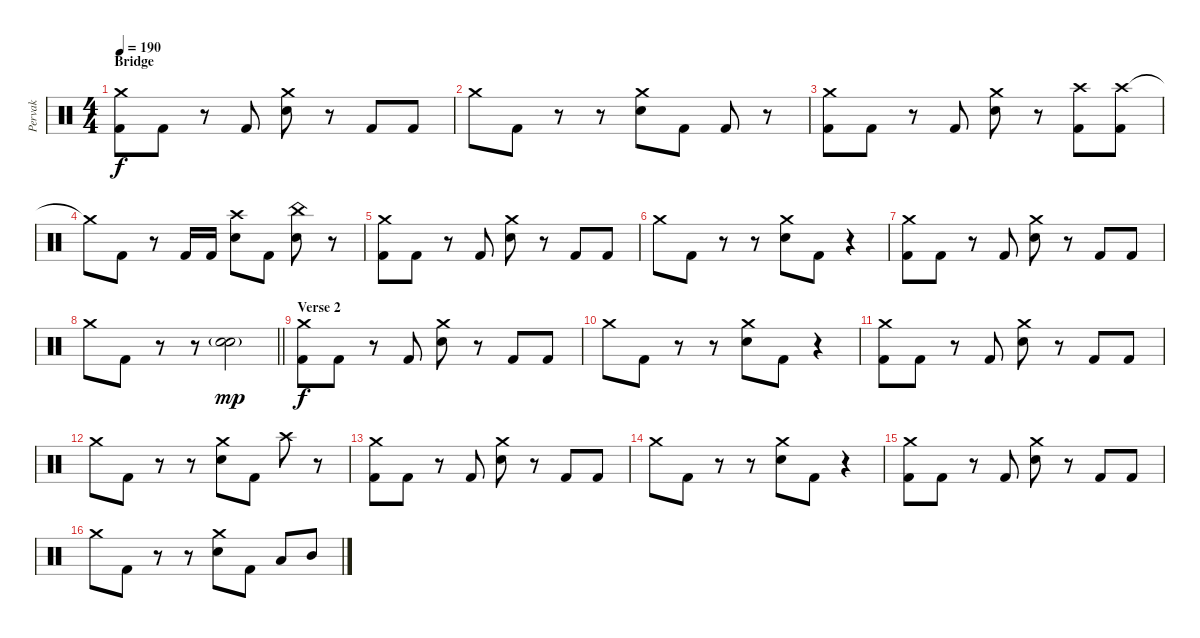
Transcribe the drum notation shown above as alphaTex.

\track ("Pervak" "Pervak") {instrument percussion}
\staff {score}
\articulation defaults
\ts (4 4)
\section ("" "Bridge")
\tempo 190
\clef neutral
\ks c
("Crash medium (hit)" "Kick (hit) 2").8{dy f} "Kick (hit) 2".8 r.8 "Kick (hit) 2".8 ("Crash medium (hit)" "Electric Snare (hit)").8 r.8 "Kick (hit) 2".8 "Kick (hit) 2".8 |
"Crash medium (hit)".8 "Kick (hit) 2".8 r.8 r.8 ("Crash medium (hit)" "Electric Snare (hit)").8 "Kick (hit) 2".8 "Kick (hit) 2".8 r.8 |
("Crash medium (hit)" "Kick (hit) 2").8 "Kick (hit) 2".8 r.8 "Kick (hit) 2".8 ("Crash medium (hit)" "Electric Snare (hit)").8 r.8 ("Crash high (hit)" "Kick (hit) 2").8 ("Crash high (hit)" "Kick (hit) 2").8 |
"Crash medium (hit)"{t}.8 "Kick (hit) 2".8 r.8 "Kick (hit) 2".16 "Kick (hit) 2".16 ("Crash high (hit)" "Electric Snare (hit)").8 "Kick (hit) 2".8 ("China (hit)" "Electric Snare (hit)").8 r.8 |
("Crash medium (hit)" "Kick (hit) 2").8 "Kick (hit) 2".8 r.8 "Kick (hit) 2".8 ("Crash medium (hit)" "Electric Snare (hit)").8 r.8 "Kick (hit) 2".8 "Kick (hit) 2".8 |
"Crash medium (hit)".8 "Kick (hit) 2".8 r.8 r.8 ("Crash medium (hit)" "Electric Snare (hit)").8 "Kick (hit) 2".8 r.4 |
("Crash medium (hit)" "Kick (hit) 2").8 "Kick (hit) 2".8 r.8 "Kick (hit) 2".8 ("Crash medium (hit)" "Electric Snare (hit)").8 r.8 "Kick (hit) 2".8 "Kick (hit) 2".8 |
\barLineRight lightlight "Crash medium (hit)".8 "Kick (hit) 2".8
r.8 r.8 ("Snare (hit) 2"{g} "Electric Snare (hit)").2{dy mp} |
\section ("" "Verse 2")
("Crash medium (hit)" "Kick (hit) 2").8{dy f} "Kick (hit) 2".8 r.8 "Kick (hit) 2".8 ("Crash medium (hit)" "Electric Snare (hit)").8 r.8 "Kick (hit) 2".8 "Kick (hit) 2".8 |
"Crash medium (hit)".8 "Kick (hit) 2".8 r.8 r.8 ("Crash medium (hit)" "Electric Snare (hit)").8 "Kick (hit) 2".8 r.4 |
("Crash medium (hit)" "Kick (hit) 2").8 "Kick (hit) 2".8 r.8 "Kick (hit) 2".8 ("Crash medium (hit)" "Electric Snare (hit)").8 r.8 "Kick (hit) 2".8 "Kick (hit) 2".8 |
"Crash medium (hit)".8 "Kick (hit) 2".8 r.8 r.8 ("Crash medium (hit)" "Electric Snare (hit)").8 "Kick (hit) 2".8 "Crash high (hit)".8 r.8 |
("Crash medium (hit)" "Kick (hit) 2").8 "Kick (hit) 2".8 r.8 "Kick (hit) 2".8 ("Crash medium (hit)" "Electric Snare (hit)").8 r.8 "Kick (hit) 2".8 "Kick (hit) 2".8 |
"Crash medium (hit)".8 "Kick (hit) 2".8 r.8 r.8 ("Crash medium (hit)" "Electric Snare (hit)").8 "Kick (hit) 2".8 r.4 |
("Crash medium (hit)" "Kick (hit) 2").8 "Kick (hit) 2".8 r.8 "Kick (hit) 2".8 ("Crash medium (hit)" "Electric Snare (hit)").8 r.8 "Kick (hit) 2".8 "Kick (hit) 2".8 |
"Crash medium (hit)".8 "Kick (hit) 2".8 r.8 r.8 ("Crash medium (hit)" "Electric Snare (hit)").8 "Kick (hit) 2".8 "Low Tom (hit)".8 "Mid Tom (hit)".8
